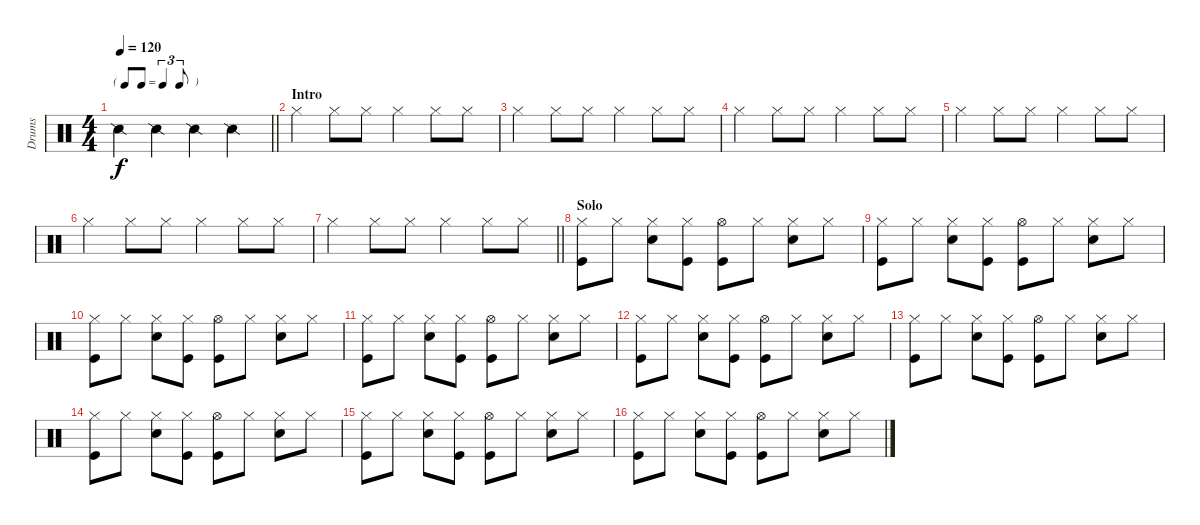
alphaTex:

\track ("Drums" "Drums") {instrument percussion}
\staff {score}
\articulation defaults
\ts (4 4)
\tf triplet8th
\tempo 120
\clef neutral
\barLineRight lightlight
\ks c "Snare (side stick) 2".4{dy f} "Snare (side stick) 2".4 "Snare (side stick) 2".4 "Snare (side stick) 2".4
|
\section ("" "Intro")
"Hi-Hat (closed)".4 "Hi-Hat (closed)".8 "Hi-Hat (closed)".8 "Hi-Hat (closed)".4 "Hi-Hat (closed)".8 "Hi-Hat (closed)".8 |
"Hi-Hat (closed)".4 "Hi-Hat (closed)".8 "Hi-Hat (closed)".8 "Hi-Hat (closed)".4 "Hi-Hat (closed)".8 "Hi-Hat (closed)".8 |
"Hi-Hat (closed)".4 "Hi-Hat (closed)".8 "Hi-Hat (closed)".8 "Hi-Hat (closed)".4 "Hi-Hat (closed)".8 "Hi-Hat (closed)".8 |
"Hi-Hat (closed)".4 "Hi-Hat (closed)".8 "Hi-Hat (closed)".8 "Hi-Hat (closed)".4 "Hi-Hat (closed)".8 "Hi-Hat (closed)".8 |
"Hi-Hat (closed)".4 "Hi-Hat (closed)".8 "Hi-Hat (closed)".8 "Hi-Hat (closed)".4 "Hi-Hat (closed)".8 "Hi-Hat (closed)".8 |
\barLineRight lightlight "Hi-Hat (closed)".4 "Hi-Hat (closed)".8 "Hi-Hat (closed)".8 "Hi-Hat (closed)".4 "Hi-Hat (closed)".8 "Hi-Hat (closed)".8
|
\section ("" "Solo")
("Hi-Hat (closed)" "Kick (hit)").8 "Hi-Hat (closed)".8 ("Hi-Hat (closed)" "Snare (hit) 2").8 ("Hi-Hat (closed)" "Kick (hit)").8 ("Hi-Hat (open)" "Kick (hit)").8 "Hi-Hat (closed)".8 ("Hi-Hat (closed)" "Snare (hit) 2").8 "Hi-Hat (closed)".8 |
("Hi-Hat (closed)" "Kick (hit)").8 "Hi-Hat (closed)".8 ("Hi-Hat (closed)" "Snare (hit) 2").8 ("Hi-Hat (closed)" "Kick (hit)").8 ("Hi-Hat (open)" "Kick (hit)").8 "Hi-Hat (closed)".8 ("Hi-Hat (closed)" "Snare (hit) 2").8 "Hi-Hat (closed)".8 |
("Hi-Hat (closed)" "Kick (hit)").8 "Hi-Hat (closed)".8 ("Hi-Hat (closed)" "Snare (hit) 2").8 ("Hi-Hat (closed)" "Kick (hit)").8 ("Hi-Hat (open)" "Kick (hit)").8 "Hi-Hat (closed)".8 ("Hi-Hat (closed)" "Snare (hit) 2").8 "Hi-Hat (closed)".8 |
("Hi-Hat (closed)" "Kick (hit)").8 "Hi-Hat (closed)".8 ("Hi-Hat (closed)" "Snare (hit) 2").8 ("Hi-Hat (closed)" "Kick (hit)").8 ("Hi-Hat (open)" "Kick (hit)").8 "Hi-Hat (closed)".8 ("Hi-Hat (closed)" "Snare (hit) 2").8 "Hi-Hat (closed)".8 |
("Hi-Hat (closed)" "Kick (hit)").8 "Hi-Hat (closed)".8 ("Hi-Hat (closed)" "Snare (hit) 2").8 ("Hi-Hat (closed)" "Kick (hit)").8 ("Hi-Hat (open)" "Kick (hit)").8 "Hi-Hat (closed)".8 ("Hi-Hat (closed)" "Snare (hit) 2").8 "Hi-Hat (closed)".8 |
("Hi-Hat (closed)" "Kick (hit)").8 "Hi-Hat (closed)".8 ("Hi-Hat (closed)" "Snare (hit) 2").8 ("Hi-Hat (closed)" "Kick (hit)").8 ("Hi-Hat (open)" "Kick (hit)").8 "Hi-Hat (closed)".8 ("Hi-Hat (closed)" "Snare (hit) 2").8 "Hi-Hat (closed)".8 |
("Hi-Hat (closed)" "Kick (hit)").8 "Hi-Hat (closed)".8 ("Hi-Hat (closed)" "Snare (hit) 2").8 ("Hi-Hat (closed)" "Kick (hit)").8 ("Hi-Hat (open)" "Kick (hit)").8 "Hi-Hat (closed)".8 ("Hi-Hat (closed)" "Snare (hit) 2").8 "Hi-Hat (closed)".8 |
("Hi-Hat (closed)" "Kick (hit)").8 "Hi-Hat (closed)".8 ("Hi-Hat (closed)" "Snare (hit) 2").8 ("Hi-Hat (closed)" "Kick (hit)").8 ("Hi-Hat (open)" "Kick (hit)").8 "Hi-Hat (closed)".8 ("Hi-Hat (closed)" "Snare (hit) 2").8 "Hi-Hat (closed)".8 |
("Hi-Hat (closed)" "Kick (hit)").8 "Hi-Hat (closed)".8 ("Hi-Hat (closed)" "Snare (hit) 2").8 ("Hi-Hat (closed)" "Kick (hit)").8 ("Hi-Hat (open)" "Kick (hit)").8 "Hi-Hat (closed)".8 ("Hi-Hat (closed)" "Snare (hit) 2").8 "Hi-Hat (closed)".8
